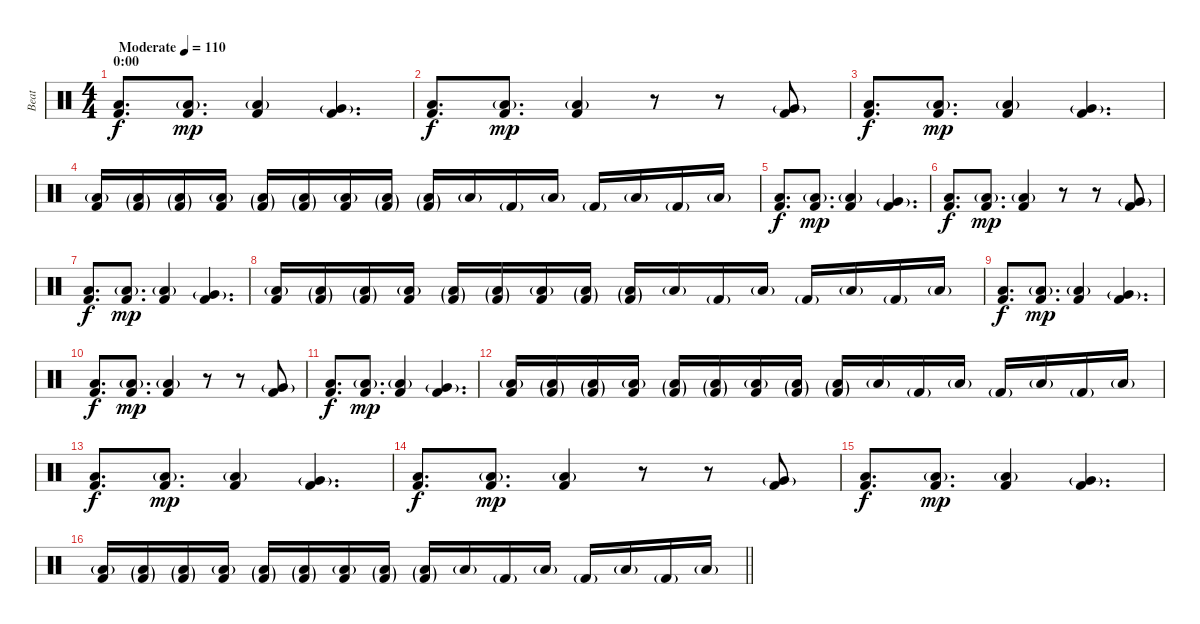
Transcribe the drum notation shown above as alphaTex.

\track ("Beat" "Beat") {instrument percussion}
\staff {score}
\articulation defaults
\ts (4 4)
\section ("" "0:00")
\tempo (110 "Moderate")
\clef neutral
\ks c
("Low Floor Tom (hit)" "Kick (hit) 2").8{d dy f} ("Low Floor Tom (hit)"{g} "Kick (hit) 2").8{d dy mp} ("Low Floor Tom (hit)"{g} "Kick (hit) 2").4 ("Very Low Tom (hit)"{g} "Kick (hit) 2").4{d} |
("Low Floor Tom (hit)" "Kick (hit) 2").8{d dy f} ("Low Floor Tom (hit)"{g} "Kick (hit) 2").8{d dy mp} ("Low Floor Tom (hit)"{g} "Kick (hit) 2").4 r.8 r.8 ("Very Low Tom (hit)"{g} "Kick (hit) 2").8 |
("Low Floor Tom (hit)" "Kick (hit) 2").8{d dy f} ("Low Floor Tom (hit)"{g} "Kick (hit) 2").8{d dy mp} ("Low Floor Tom (hit)"{g} "Kick (hit) 2").4 ("Very Low Tom (hit)"{g} "Kick (hit) 2").4{d} |
("Low Floor Tom (hit)"{g} "Kick (hit) 2").16 ("Low Floor Tom (hit)"{g} "Kick (hit) 2"{g}).16 ("Low Floor Tom (hit)"{g} "Kick (hit) 2"{g}).16 ("Low Floor Tom (hit)"{g} "Kick (hit) 2").16 ("Low Floor Tom (hit)"{g} "Kick (hit) 2"{g}).16 ("Low Floor Tom (hit)"{g} "Kick (hit) 2"{g}).16 ("Low Floor Tom (hit)"{g} "Kick (hit) 2").16 ("Low Floor Tom (hit)"{g} "Kick (hit) 2"{g}).16 ("Low Floor Tom (hit)"{g} "Kick (hit) 2"{g}).16 "Low Floor Tom (hit)"{g}.16 "Kick (hit) 2"{g}.16 "Low Floor Tom (hit)"{g}.16 "Kick (hit) 2"{g}.16 "Low Floor Tom (hit)"{g}.16 "Kick (hit) 2"{g}.16 "Low Floor Tom (hit)"{g}.16 |
("Low Floor Tom (hit)" "Kick (hit) 2").8{d dy f} ("Low Floor Tom (hit)"{g} "Kick (hit) 2").8{d dy mp} ("Low Floor Tom (hit)"{g} "Kick (hit) 2").4 ("Very Low Tom (hit)"{g} "Kick (hit) 2").4{d} |
("Low Floor Tom (hit)" "Kick (hit) 2").8{d dy f} ("Low Floor Tom (hit)"{g} "Kick (hit) 2").8{d dy mp} ("Low Floor Tom (hit)"{g} "Kick (hit) 2").4 r.8 r.8 ("Very Low Tom (hit)"{g} "Kick (hit) 2").8 |
("Low Floor Tom (hit)" "Kick (hit) 2").8{d dy f} ("Low Floor Tom (hit)"{g} "Kick (hit) 2").8{d dy mp} ("Low Floor Tom (hit)"{g} "Kick (hit) 2").4 ("Very Low Tom (hit)"{g} "Kick (hit) 2").4{d} |
("Low Floor Tom (hit)"{g} "Kick (hit) 2").16 ("Low Floor Tom (hit)"{g} "Kick (hit) 2"{g}).16 ("Low Floor Tom (hit)"{g} "Kick (hit) 2"{g}).16 ("Low Floor Tom (hit)"{g} "Kick (hit) 2").16 ("Low Floor Tom (hit)"{g} "Kick (hit) 2"{g}).16 ("Low Floor Tom (hit)"{g} "Kick (hit) 2"{g}).16 ("Low Floor Tom (hit)"{g} "Kick (hit) 2").16 ("Low Floor Tom (hit)"{g} "Kick (hit) 2"{g}).16 ("Low Floor Tom (hit)"{g} "Kick (hit) 2"{g}).16 "Low Floor Tom (hit)"{g}.16 "Kick (hit) 2"{g}.16 "Low Floor Tom (hit)"{g}.16 "Kick (hit) 2"{g}.16 "Low Floor Tom (hit)"{g}.16 "Kick (hit) 2"{g}.16 "Low Floor Tom (hit)"{g}.16 |
("Low Floor Tom (hit)" "Kick (hit) 2").8{d dy f} ("Low Floor Tom (hit)"{g} "Kick (hit) 2").8{d dy mp} ("Low Floor Tom (hit)"{g} "Kick (hit) 2").4 ("Very Low Tom (hit)"{g} "Kick (hit) 2").4{d} |
("Low Floor Tom (hit)" "Kick (hit) 2").8{d dy f} ("Low Floor Tom (hit)"{g} "Kick (hit) 2").8{d dy mp} ("Low Floor Tom (hit)"{g} "Kick (hit) 2").4 r.8 r.8 ("Very Low Tom (hit)"{g} "Kick (hit) 2").8 |
("Low Floor Tom (hit)" "Kick (hit) 2").8{d dy f} ("Low Floor Tom (hit)"{g} "Kick (hit) 2").8{d dy mp} ("Low Floor Tom (hit)"{g} "Kick (hit) 2").4 ("Very Low Tom (hit)"{g} "Kick (hit) 2").4{d} |
("Low Floor Tom (hit)"{g} "Kick (hit) 2").16 ("Low Floor Tom (hit)"{g} "Kick (hit) 2"{g}).16 ("Low Floor Tom (hit)"{g} "Kick (hit) 2"{g}).16 ("Low Floor Tom (hit)"{g} "Kick (hit) 2").16 ("Low Floor Tom (hit)"{g} "Kick (hit) 2"{g}).16 ("Low Floor Tom (hit)"{g} "Kick (hit) 2"{g}).16 ("Low Floor Tom (hit)"{g} "Kick (hit) 2").16 ("Low Floor Tom (hit)"{g} "Kick (hit) 2"{g}).16 ("Low Floor Tom (hit)"{g} "Kick (hit) 2"{g}).16 "Low Floor Tom (hit)"{g}.16 "Kick (hit) 2"{g}.16 "Low Floor Tom (hit)"{g}.16 "Kick (hit) 2"{g}.16 "Low Floor Tom (hit)"{g}.16 "Kick (hit) 2"{g}.16 "Low Floor Tom (hit)"{g}.16 |
("Low Floor Tom (hit)" "Kick (hit) 2").8{d dy f} ("Low Floor Tom (hit)"{g} "Kick (hit) 2").8{d dy mp} ("Low Floor Tom (hit)"{g} "Kick (hit) 2").4 ("Very Low Tom (hit)"{g} "Kick (hit) 2").4{d} |
("Low Floor Tom (hit)" "Kick (hit) 2").8{d dy f} ("Low Floor Tom (hit)"{g} "Kick (hit) 2").8{d dy mp} ("Low Floor Tom (hit)"{g} "Kick (hit) 2").4 r.8 r.8 ("Very Low Tom (hit)"{g} "Kick (hit) 2").8 |
("Low Floor Tom (hit)" "Kick (hit) 2").8{d dy f} ("Low Floor Tom (hit)"{g} "Kick (hit) 2").8{d dy mp} ("Low Floor Tom (hit)"{g} "Kick (hit) 2").4 ("Very Low Tom (hit)"{g} "Kick (hit) 2").4{d} |
\barLineRight lightlight
("Low Floor Tom (hit)"{g} "Kick (hit) 2").16 ("Low Floor Tom (hit)"{g} "Kick (hit) 2"{g}).16 ("Low Floor Tom (hit)"{g} "Kick (hit) 2"{g}).16 ("Low Floor Tom (hit)"{g} "Kick (hit) 2").16 ("Low Floor Tom (hit)"{g} "Kick (hit) 2"{g}).16 ("Low Floor Tom (hit)"{g} "Kick (hit) 2"{g}).16 ("Low Floor Tom (hit)"{g} "Kick (hit) 2").16 ("Low Floor Tom (hit)"{g} "Kick (hit) 2"{g}).16 ("Low Floor Tom (hit)"{g} "Kick (hit) 2"{g}).16 "Low Floor Tom (hit)"{g}.16 "Kick (hit) 2"{g}.16 "Low Floor Tom (hit)"{g}.16 "Kick (hit) 2"{g}.16 "Low Floor Tom (hit)"{g}.16 "Kick (hit) 2"{g}.16 "Low Floor Tom (hit)"{g}.16
